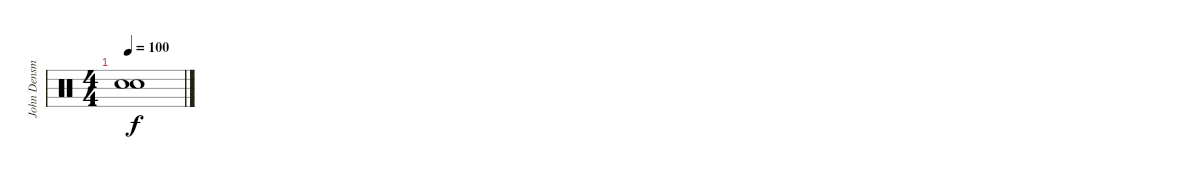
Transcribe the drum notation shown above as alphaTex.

\track ("John Densmore - Drums" "John Densm") {instrument percussion}
\staff {score}
\articulation defaults
\ts (4 4)
\tempo 100
\clef neutral
\ks c
("Snare (hit)"{t} "Snare (hit)"{t}).1{dy f}
